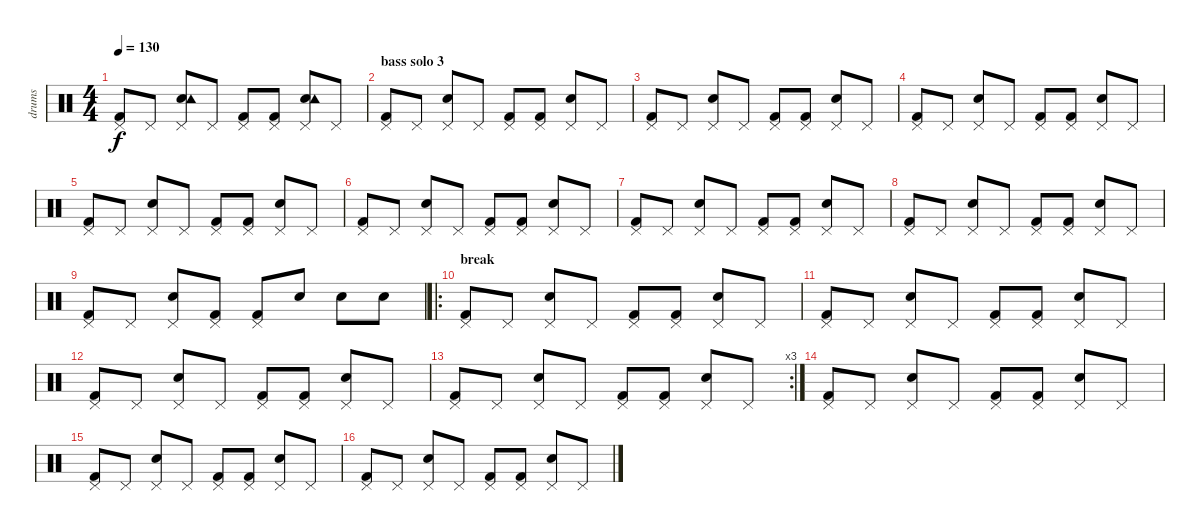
\track ("drums" "drums") {instrument percussion}
\staff {score}
\articulation defaults
\ts (4 4)
\tempo 130
\clef neutral
\ks c
("Kick (hit) 2" "Pedal Hi-Hat (hit)").8{dy f} "Pedal Hi-Hat (hit)".8 ("Snare (hit) 2" "Tambourine (hit)" "Pedal Hi-Hat (hit)").8 "Pedal Hi-Hat (hit)".8 ("Kick (hit) 2" "Pedal Hi-Hat (hit)").8 ("Kick (hit) 2" "Pedal Hi-Hat (hit)").8 ("Snare (hit) 2" "Tambourine (hit)" "Pedal Hi-Hat (hit)").8 "Pedal Hi-Hat (hit)".8 |
\section ("" "bass solo 3")
("Kick (hit) 2" "Pedal Hi-Hat (hit)").8 "Pedal Hi-Hat (hit)".8 ("Snare (hit) 2" "Pedal Hi-Hat (hit)").8 "Pedal Hi-Hat (hit)".8 ("Kick (hit) 2" "Pedal Hi-Hat (hit)").8 ("Kick (hit) 2" "Pedal Hi-Hat (hit)").8 ("Snare (hit) 2" "Pedal Hi-Hat (hit)").8 "Pedal Hi-Hat (hit)".8 |
("Kick (hit) 2" "Pedal Hi-Hat (hit)").8 "Pedal Hi-Hat (hit)".8 ("Snare (hit) 2" "Pedal Hi-Hat (hit)").8 "Pedal Hi-Hat (hit)".8 ("Kick (hit) 2" "Pedal Hi-Hat (hit)").8 ("Kick (hit) 2" "Pedal Hi-Hat (hit)").8 ("Snare (hit) 2" "Pedal Hi-Hat (hit)").8 "Pedal Hi-Hat (hit)".8 |
("Kick (hit) 2" "Pedal Hi-Hat (hit)").8 "Pedal Hi-Hat (hit)".8 ("Snare (hit) 2" "Pedal Hi-Hat (hit)").8 "Pedal Hi-Hat (hit)".8 ("Kick (hit) 2" "Pedal Hi-Hat (hit)").8 ("Kick (hit) 2" "Pedal Hi-Hat (hit)").8 ("Snare (hit) 2" "Pedal Hi-Hat (hit)").8 "Pedal Hi-Hat (hit)".8 |
("Kick (hit) 2" "Pedal Hi-Hat (hit)").8 "Pedal Hi-Hat (hit)".8 ("Snare (hit) 2" "Pedal Hi-Hat (hit)").8 "Pedal Hi-Hat (hit)".8 ("Kick (hit) 2" "Pedal Hi-Hat (hit)").8 ("Kick (hit) 2" "Pedal Hi-Hat (hit)").8 ("Snare (hit) 2" "Pedal Hi-Hat (hit)").8 "Pedal Hi-Hat (hit)".8 |
("Kick (hit) 2" "Pedal Hi-Hat (hit)").8 "Pedal Hi-Hat (hit)".8 ("Snare (hit) 2" "Pedal Hi-Hat (hit)").8 "Pedal Hi-Hat (hit)".8 ("Kick (hit) 2" "Pedal Hi-Hat (hit)").8 ("Kick (hit) 2" "Pedal Hi-Hat (hit)").8 ("Snare (hit) 2" "Pedal Hi-Hat (hit)").8 "Pedal Hi-Hat (hit)".8 |
("Kick (hit) 2" "Pedal Hi-Hat (hit)").8 "Pedal Hi-Hat (hit)".8 ("Snare (hit) 2" "Pedal Hi-Hat (hit)").8 "Pedal Hi-Hat (hit)".8 ("Kick (hit) 2" "Pedal Hi-Hat (hit)").8 ("Kick (hit) 2" "Pedal Hi-Hat (hit)").8 ("Snare (hit) 2" "Pedal Hi-Hat (hit)").8 "Pedal Hi-Hat (hit)".8 |
("Kick (hit) 2" "Pedal Hi-Hat (hit)").8 "Pedal Hi-Hat (hit)".8 ("Snare (hit) 2" "Pedal Hi-Hat (hit)").8 "Pedal Hi-Hat (hit)".8 ("Kick (hit) 2" "Pedal Hi-Hat (hit)").8 ("Kick (hit) 2" "Pedal Hi-Hat (hit)").8 ("Snare (hit) 2" "Pedal Hi-Hat (hit)").8 "Pedal Hi-Hat (hit)".8 |
("Kick (hit) 2" "Pedal Hi-Hat (hit)").8 "Pedal Hi-Hat (hit)".8 ("Snare (hit) 2" "Pedal Hi-Hat (hit)").8 ("Kick (hit) 2" "Pedal Hi-Hat (hit)").8 ("Kick (hit) 2" "Pedal Hi-Hat (hit)").8 "Snare (hit) 2"{tr (38 16)}.8 "Snare (hit) 2"{tr (38 16)}.8 "Snare (hit) 2"{tr (38 16)}.8 |
\ro
\section ("" "break")
("Kick (hit) 2" "Pedal Hi-Hat (hit)").8 "Pedal Hi-Hat (hit)".8 ("Snare (hit) 2" "Pedal Hi-Hat (hit)").8 "Pedal Hi-Hat (hit)".8 ("Kick (hit) 2" "Pedal Hi-Hat (hit)").8 ("Kick (hit) 2" "Pedal Hi-Hat (hit)").8 ("Snare (hit) 2" "Pedal Hi-Hat (hit)").8 "Pedal Hi-Hat (hit)".8 |
("Kick (hit) 2" "Pedal Hi-Hat (hit)").8 "Pedal Hi-Hat (hit)".8 ("Snare (hit) 2" "Pedal Hi-Hat (hit)").8 "Pedal Hi-Hat (hit)".8 ("Kick (hit) 2" "Pedal Hi-Hat (hit)").8 ("Kick (hit) 2" "Pedal Hi-Hat (hit)").8 ("Snare (hit) 2" "Pedal Hi-Hat (hit)").8 "Pedal Hi-Hat (hit)".8 |
("Kick (hit) 2" "Pedal Hi-Hat (hit)").8 "Pedal Hi-Hat (hit)".8 ("Snare (hit) 2" "Pedal Hi-Hat (hit)").8 "Pedal Hi-Hat (hit)".8 ("Kick (hit) 2" "Pedal Hi-Hat (hit)").8 ("Kick (hit) 2" "Pedal Hi-Hat (hit)").8 ("Snare (hit) 2" "Pedal Hi-Hat (hit)").8 "Pedal Hi-Hat (hit)".8 |
\rc 3
("Kick (hit) 2" "Pedal Hi-Hat (hit)").8 "Pedal Hi-Hat (hit)".8 ("Snare (hit) 2" "Pedal Hi-Hat (hit)").8 "Pedal Hi-Hat (hit)".8 ("Kick (hit) 2" "Pedal Hi-Hat (hit)").8 ("Kick (hit) 2" "Pedal Hi-Hat (hit)").8 ("Snare (hit) 2" "Pedal Hi-Hat (hit)").8 "Pedal Hi-Hat (hit)".8 |
("Kick (hit) 2" "Pedal Hi-Hat (hit)").8 "Pedal Hi-Hat (hit)".8 ("Snare (hit) 2" "Pedal Hi-Hat (hit)").8 "Pedal Hi-Hat (hit)".8 ("Kick (hit) 2" "Pedal Hi-Hat (hit)").8 ("Kick (hit) 2" "Pedal Hi-Hat (hit)").8 ("Snare (hit) 2" "Pedal Hi-Hat (hit)").8 "Pedal Hi-Hat (hit)".8 |
("Kick (hit) 2" "Pedal Hi-Hat (hit)").8 "Pedal Hi-Hat (hit)".8 ("Snare (hit) 2" "Pedal Hi-Hat (hit)").8 "Pedal Hi-Hat (hit)".8 ("Kick (hit) 2" "Pedal Hi-Hat (hit)").8 ("Kick (hit) 2" "Pedal Hi-Hat (hit)").8 ("Snare (hit) 2" "Pedal Hi-Hat (hit)").8 "Pedal Hi-Hat (hit)".8 |
("Kick (hit) 2" "Pedal Hi-Hat (hit)").8 "Pedal Hi-Hat (hit)".8 ("Snare (hit) 2" "Pedal Hi-Hat (hit)").8 "Pedal Hi-Hat (hit)".8 ("Kick (hit) 2" "Pedal Hi-Hat (hit)").8 ("Kick (hit) 2" "Pedal Hi-Hat (hit)").8 ("Snare (hit) 2" "Pedal Hi-Hat (hit)").8 "Pedal Hi-Hat (hit)".8
